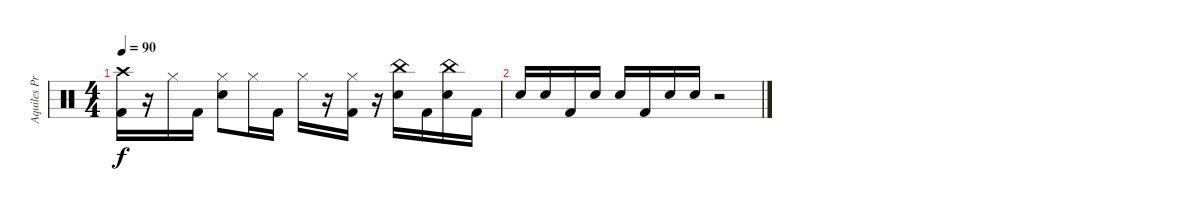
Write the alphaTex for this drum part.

\track ("Aquiles Priester" "Aquiles Pr") {instrument percussion}
\staff {score}
\articulation defaults
\ts (4 4)
\tempo 90
\clef neutral
\ks c
("Crash high (hit)" "Kick (hit) 2").16{dy f} r.16 "Hi-Hat (closed)".16 "Kick (hit) 2".16 ("Hi-Hat (closed)" "Electric Snare (hit)").8 "Hi-Hat (closed)".16 "Kick (hit) 2".16 "Hi-Hat (closed)".16 r.16 ("Hi-Hat (closed)" "Kick (hit) 2").16 r.16 ("China (hit)" "Electric Snare (hit)").16 "Kick (hit) 2".16 ("China (hit)" "Electric Snare (hit)").16 "Kick (hit) 2".16 |
"Electric Snare (hit)".16 "Electric Snare (hit)".16 "Kick (hit) 2".16 "Electric Snare (hit)".16 "Electric Snare (hit)".16 "Kick (hit) 2".16 "Electric Snare (hit)".16 "Electric Snare (hit)".16 r.2
